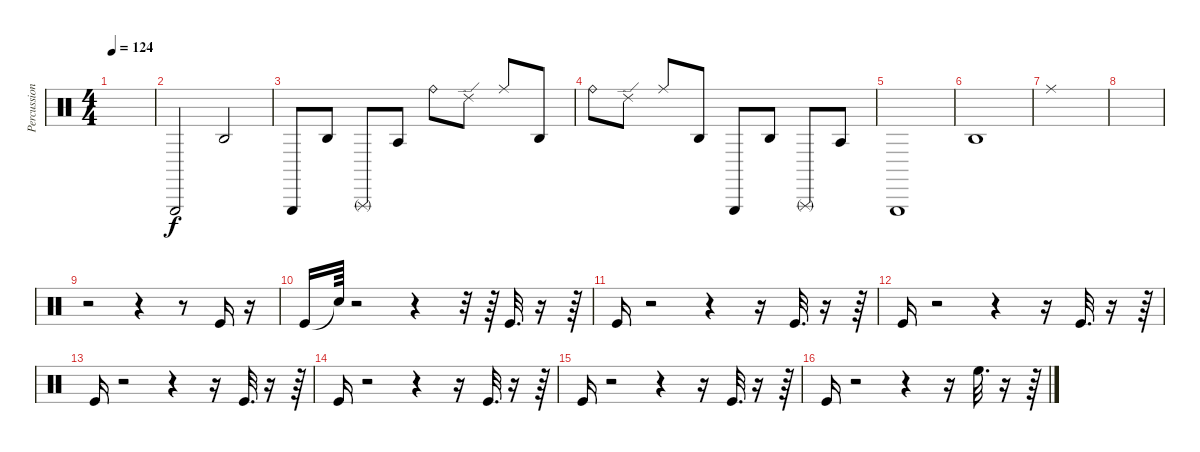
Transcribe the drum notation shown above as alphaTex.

\track ("Percussion" "Percussion") {instrument percussion}
\staff {score}
\articulation defaults
\ts (4 4)
\tempo 124
\clef neutral
\ks c
|
"Triangle (hit)".2{dy f} "Agogo high (hit)".2 |
"Triangle (hit)".8 "Agogo high (hit)".8 "Triangle (rnute)".8 "Agogo tow (hit)".8 "Ride (bell)".8 "Ride (edge) 2".8 "Ride (middle)".8 "Agogo high (hit)".8 |
"Ride (bell)".8 "Ride (edge) 2".8 "Ride (middle)".8 "Agogo high (hit)".8 "Triangle (hit)".8 "Agogo high (hit)".8 "Triangle (rnute)".8 "Agogo tow (hit)".8 |
"Triangle (hit)".1 |
"Agogo high (hit)".1 |
"Ride (middle)".1 |
|
r.2 r.4 r.8 "Kick (hit)".16 r.16 |
"Kick (hit)".16 "Snare (hit)"{t}.64 r.2 r.4 r.32 r.64 "Kick (hit)".32{d} r.16 r.64 |
"Kick (hit)".16 r.2 r.4 r.16 "Kick (hit)".32{d} r.16 r.64 |
"Kick (hit)".16 r.2 r.4 r.16 "Kick (hit)".32{d} r.16 r.64 |
"Kick (hit)".16 r.2 r.4 r.16 "Kick (hit)".32{d} r.16 r.64 |
"Kick (hit)".16 r.2 r.4 r.16 "Kick (hit)".32{d} r.16 r.64 |
"Kick (hit)".16 r.2 r.4 r.16 "Kick (hit)".32{d} r.16 r.64 |
"Kick (hit)".16 r.2 r.4 r.16 "High Floor Tom (hit)".32{d} r.16 r.64
